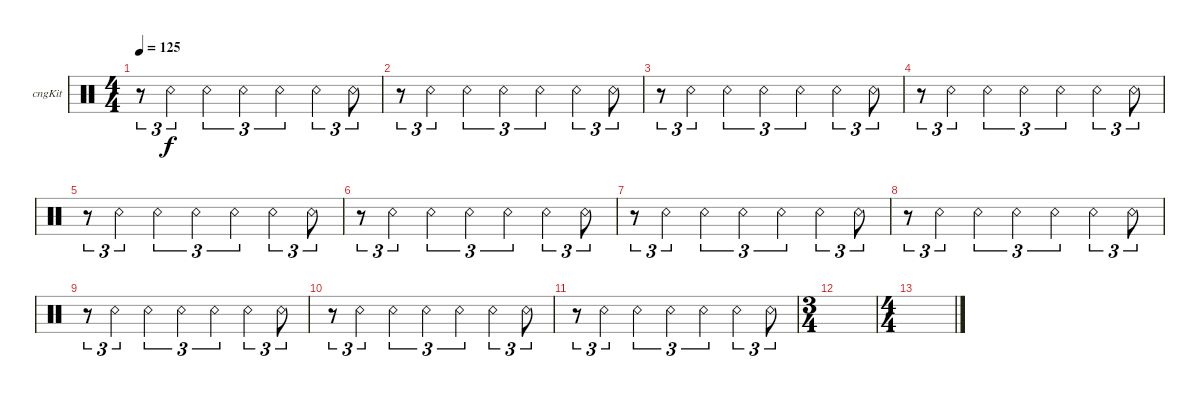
\defaultSystemsLayout 4
\bracketExtendMode groupsimilarinstruments
\firstSystemTrackNameOrientation horizontal
\otherSystemsTrackNameOrientation horizontal
\track ("Congas" "cngKit") {instrument percussion}
\staff {score}
\articulation defaults
\ts (4 4)
\tempo 125
\clef neutral
\scale
0.333333
\ks c
r.8{tu (3 2) dy f} "Snare (rim shot)".4{tu (3 2)} "Snare (rim shot)".4{tu (3 2)} "Snare (rim shot)".4{tu (3 2)} "Snare (rim shot)".4{tu (3 2)} "Snare (rim shot)".4{tu (3 2)} "Snare (rim shot)".8{tu (3 2)} |
\scale
0.333333 r.8{tu (3 2)} "Snare (rim shot)".4{tu (3 2)} "Snare (rim shot)".4{tu (3 2)} "Snare (rim shot)".4{tu (3 2)} "Snare (rim shot)".4{tu (3 2)} "Snare (rim shot)".4{tu (3 2)} "Snare (rim shot)".8{tu (3 2)} |
\scale
0.333333 r.8{tu (3 2)} "Snare (rim shot)".4{tu (3 2)} "Snare (rim shot)".4{tu (3 2)} "Snare (rim shot)".4{tu (3 2)} "Snare (rim shot)".4{tu (3 2)} "Snare (rim shot)".4{tu (3 2)} "Snare (rim shot)".8{tu (3 2)} |
\scale
0.333333 r.8{tu (3 2)} "Snare (rim shot)".4{tu (3 2)} "Snare (rim shot)".4{tu (3 2)} "Snare (rim shot)".4{tu (3 2)} "Snare (rim shot)".4{tu (3 2)} "Snare (rim shot)".4{tu (3 2)} "Snare (rim shot)".8{tu (3 2)} |
\scale
0.333333 r.8{tu (3 2)} "Snare (rim shot)".4{tu (3 2)} "Snare (rim shot)".4{tu (3 2)} "Snare (rim shot)".4{tu (3 2)} "Snare (rim shot)".4{tu (3 2)} "Snare (rim shot)".4{tu (3 2)} "Snare (rim shot)".8{tu (3 2)} |
\scale
0.333333 r.8{tu (3 2)} "Snare (rim shot)".4{tu (3 2)} "Snare (rim shot)".4{tu (3 2)} "Snare (rim shot)".4{tu (3 2)} "Snare (rim shot)".4{tu (3 2)} "Snare (rim shot)".4{tu (3 2)} "Snare (rim shot)".8{tu (3 2)} |
\scale
0.333333 r.8{tu (3 2)} "Snare (rim shot)".4{tu (3 2)} "Snare (rim shot)".4{tu (3 2)} "Snare (rim shot)".4{tu (3 2)} "Snare (rim shot)".4{tu (3 2)} "Snare (rim shot)".4{tu (3 2)} "Snare (rim shot)".8{tu (3 2)} |
\scale
0.333333 r.8{tu (3 2)} "Snare (rim shot)".4{tu (3 2)} "Snare (rim shot)".4{tu (3 2)} "Snare (rim shot)".4{tu (3 2)} "Snare (rim shot)".4{tu (3 2)} "Snare (rim shot)".4{tu (3 2)} "Snare (rim shot)".8{tu (3 2)} |
\scale
0.333333 r.8{tu (3 2)} "Snare (rim shot)".4{tu (3 2)} "Snare (rim shot)".4{tu (3 2)} "Snare (rim shot)".4{tu (3 2)} "Snare (rim shot)".4{tu (3 2)} "Snare (rim shot)".4{tu (3 2)} "Snare (rim shot)".8{tu (3 2)} |
\scale
0.262911 r.8{tu (3 2)} "Snare (rim shot)".4{tu (3 2)} "Snare (rim shot)".4{tu (3 2)} "Snare (rim shot)".4{tu (3 2)} "Snare (rim shot)".4{tu (3 2)} "Snare (rim shot)".4{tu (3 2)} "Snare (rim shot)".8{tu (3 2)} |
\scale
0.262911 r.8{tu (3 2)} "Snare (rim shot)".4{tu (3 2)} "Snare (rim shot)".4{tu (3 2)} "Snare (rim shot)".4{tu (3 2)} "Snare (rim shot)".4{tu (3 2)} "Snare (rim shot)".4{tu (3 2)} "Snare (rim shot)".8{tu (3 2)} |
\ts (3 4)
\scale
0.474178 |
\ts (4 4)
\scale
0.474178 |
\scale
0.262911 |
\scale
0.262911 |
\scale
0.333333
